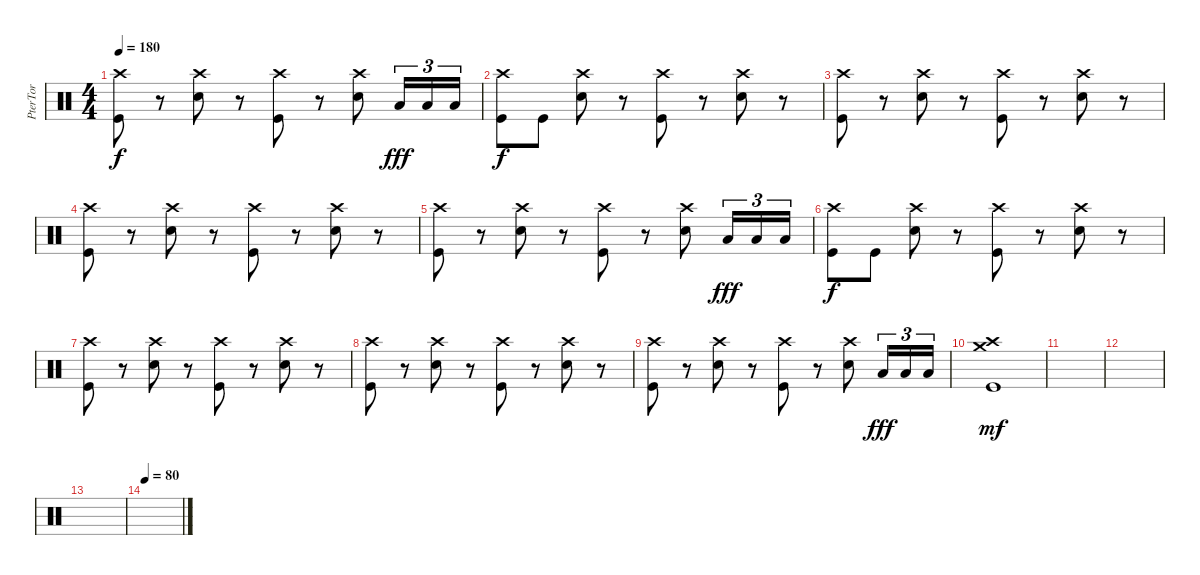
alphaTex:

\track ("PterTor" "PterTor") {instrument percussion}
\staff {score}
\articulation defaults
\ts (4 4)
\tempo 180
\clef neutral
\ks c
("Crash high (hit)" "Kick (hit)").8{dy f} r.8 ("Crash high (hit)" "Electric Snare (hit)").8 r.8 ("Crash high (hit)" "Kick (hit)").8 r.8 ("Crash high (hit)" "Electric Snare (hit)").8 "Low Floor Tom (hit)".16{tu (3 2) dy fff} "Low Floor Tom (hit)".16{tu (3 2)} "Low Floor Tom (hit)".16{tu (3 2)} |
("Crash high (hit)" "Kick (hit)").8{dy f} "Kick (hit)".8 ("Crash high (hit)" "Electric Snare (hit)").8 r.8 ("Crash high (hit)" "Kick (hit)").8 r.8 ("Crash high (hit)" "Electric Snare (hit)").8 r.8 |
("Crash high (hit)" "Kick (hit)").8 r.8 ("Crash high (hit)" "Electric Snare (hit)").8 r.8 ("Crash high (hit)" "Kick (hit)").8 r.8 ("Crash high (hit)" "Electric Snare (hit)").8 r.8 |
("Crash high (hit)" "Kick (hit)").8 r.8 ("Crash high (hit)" "Electric Snare (hit)").8 r.8 ("Crash high (hit)" "Kick (hit)").8 r.8 ("Crash high (hit)" "Electric Snare (hit)").8 r.8 |
("Crash high (hit)" "Kick (hit)").8 r.8 ("Crash high (hit)" "Electric Snare (hit)").8 r.8 ("Crash high (hit)" "Kick (hit)").8 r.8 ("Crash high (hit)" "Electric Snare (hit)").8 "Low Floor Tom (hit)".16{tu (3 2) dy fff} "Low Floor Tom (hit)".16{tu (3 2)} "Low Floor Tom (hit)".16{tu (3 2)} |
("Crash high (hit)" "Kick (hit)").8{dy f} "Kick (hit)".8 ("Crash high (hit)" "Electric Snare (hit)").8 r.8 ("Crash high (hit)" "Kick (hit)").8 r.8 ("Crash high (hit)" "Electric Snare (hit)").8 r.8 |
("Crash high (hit)" "Kick (hit)").8 r.8 ("Crash high (hit)" "Electric Snare (hit)").8 r.8 ("Crash high (hit)" "Kick (hit)").8 r.8 ("Crash high (hit)" "Electric Snare (hit)").8 r.8 |
("Crash high (hit)" "Kick (hit)").8 r.8 ("Crash high (hit)" "Electric Snare (hit)").8 r.8 ("Crash high (hit)" "Kick (hit)").8 r.8 ("Crash high (hit)" "Electric Snare (hit)").8 r.8 |
("Crash high (hit)" "Kick (hit)").8 r.8 ("Crash high (hit)" "Electric Snare (hit)").8 r.8 ("Crash high (hit)" "Kick (hit)").8 r.8 ("Crash high (hit)" "Electric Snare (hit)").8 "Low Floor Tom (hit)".16{tu (3 2) dy fff} "Low Floor Tom (hit)".16{tu (3 2)} "Low Floor Tom (hit)".16{tu (3 2)} |
("Crash high (hit)" "Crash medium (hit)" "Kick (hit)").1{dy mf} |
|
|
|
\tempo 80
